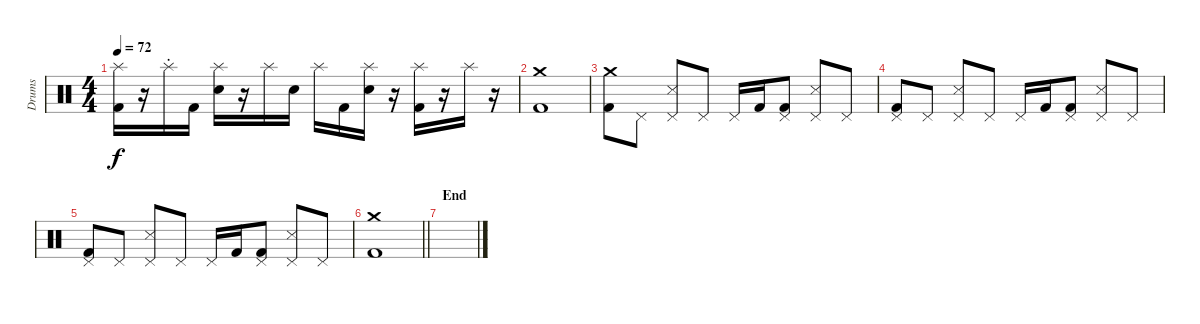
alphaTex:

\track ("Drums" "Drums") {instrument percussion}
\staff {score}
\articulation defaults
\ts (4 4)
\tempo 72
\clef neutral
\ks c
("Splash (hit)" "Kick (hit) 2").16{dy f} r.16 "Splash (hit)"{st}.16 "Kick (hit) 2".16 ("Splash (hit)" "Electric Snare (hit)").16 r.16 "Splash (hit)".16 "Electric Snare (hit)".16 "Splash (hit)".16 "Kick (hit) 2".16 ("Splash (hit)" "Electric Snare (hit)").16 r.16 ("Splash (hit)" "Kick (hit) 2").16 r.16 "Splash (hit)".16 r.16 |
("Crash medium (hit)" "Kick (hit) 2").1 |
("Crash medium (hit)" "Kick (hit) 2").8 "Pedal Hi-Hat (hit)".8 ("Pedal Hi-Hat (hit)" "Snare (side stick) 3").8 "Pedal Hi-Hat (hit)".8 "Pedal Hi-Hat (hit)".16 "Kick (hit) 2".16 ("Pedal Hi-Hat (hit)" "Kick (hit) 2").8 ("Pedal Hi-Hat (hit)" "Snare (side stick) 3").8 "Pedal Hi-Hat (hit)".8 |
("Pedal Hi-Hat (hit)" "Kick (hit) 2").8 "Pedal Hi-Hat (hit)".8 ("Pedal Hi-Hat (hit)" "Snare (side stick) 3").8 "Pedal Hi-Hat (hit)".8 "Pedal Hi-Hat (hit)".16 "Kick (hit) 2".16 ("Pedal Hi-Hat (hit)" "Kick (hit) 2").8 ("Pedal Hi-Hat (hit)" "Snare (side stick) 3").8 "Pedal Hi-Hat (hit)".8 |
("Pedal Hi-Hat (hit)" "Kick (hit) 2").8 "Pedal Hi-Hat (hit)".8 ("Pedal Hi-Hat (hit)" "Snare (side stick) 3").8 "Pedal Hi-Hat (hit)".8 "Pedal Hi-Hat (hit)".16 "Kick (hit) 2".16 ("Pedal Hi-Hat (hit)" "Kick (hit) 2").8 ("Pedal Hi-Hat (hit)" "Snare (side stick) 3").8 "Pedal Hi-Hat (hit)".8 |
\barLineRight lightlight
("Crash medium (hit)" "Kick (hit) 2").1 |
\section ("" "End")
